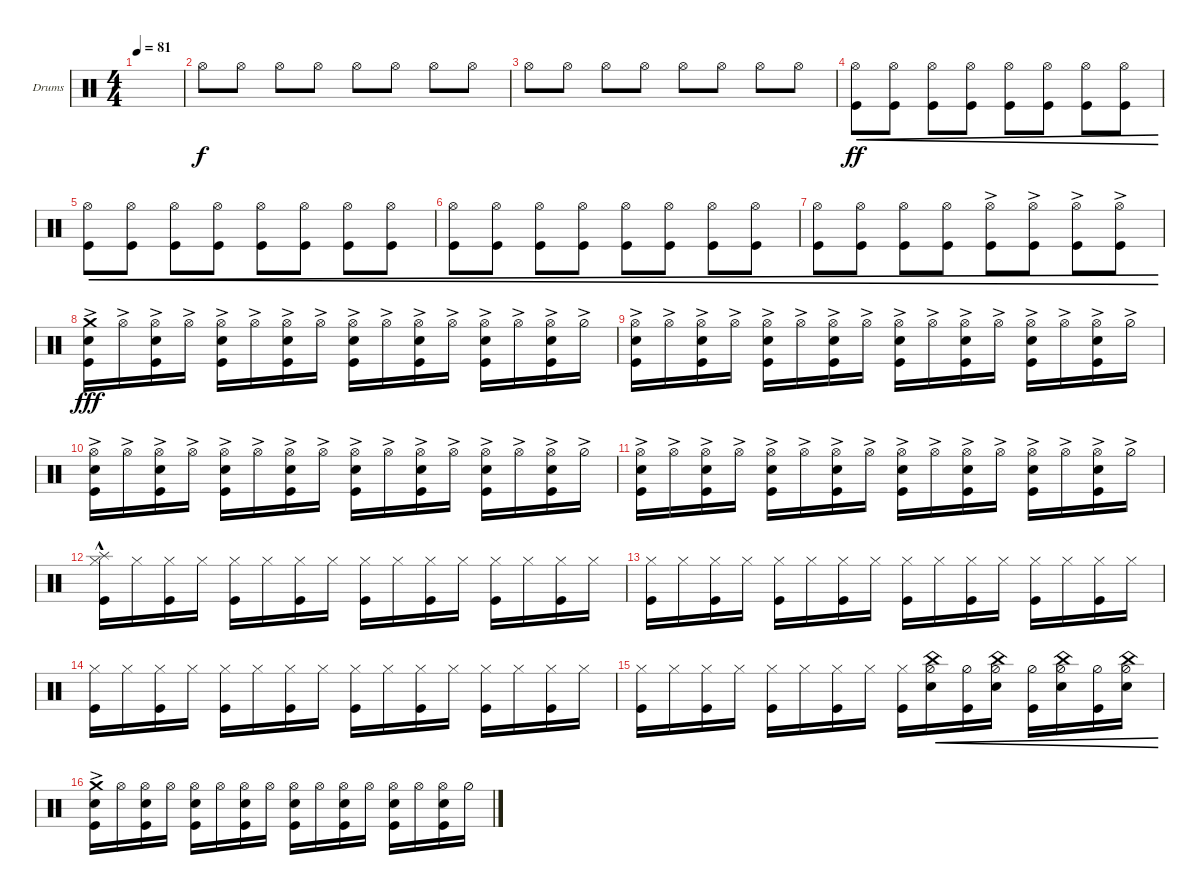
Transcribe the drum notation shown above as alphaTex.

\bracketExtendMode groupsimilarinstruments
\firstSystemTrackNameOrientation horizontal
\otherSystemsTrackNameOrientation horizontal
\track ("Drumkit" "Drums") {instrument percussion}
\staff {score}
\articulation defaults
\ts (4 4)
\tempo 81
\clef neutral
\ks c
|
"Hi-Hat (open)".8 "Hi-Hat (open)".8 "Hi-Hat (open)".8 "Hi-Hat (open)".8 "Hi-Hat (open)".8 "Hi-Hat (open)".8 "Hi-Hat (open)".8 "Hi-Hat (open)".8 |
"Hi-Hat (open)".8 "Hi-Hat (open)".8 "Hi-Hat (open)".8 "Hi-Hat (open)".8 "Hi-Hat (open)".8 "Hi-Hat (open)".8 "Hi-Hat (open)".8 "Hi-Hat (open)".8 |
("Hi-Hat (open)" "Kick (hit)").8{cre dy ff} ("Hi-Hat (open)" "Kick (hit)").8{cre} ("Hi-Hat (open)" "Kick (hit)").8{cre} ("Hi-Hat (open)" "Kick (hit)").8{cre} ("Hi-Hat (open)" "Kick (hit)").8{cre} ("Hi-Hat (open)" "Kick (hit)").8{cre} ("Hi-Hat (open)" "Kick (hit)").8{cre} ("Hi-Hat (open)" "Kick (hit)").8{cre} |
("Hi-Hat (open)" "Kick (hit)").8{cre} ("Hi-Hat (open)" "Kick (hit)").8{cre} ("Hi-Hat (open)" "Kick (hit)").8{cre} ("Hi-Hat (open)" "Kick (hit)").8{cre} ("Hi-Hat (open)" "Kick (hit)").8{cre} ("Hi-Hat (open)" "Kick (hit)").8{cre} ("Hi-Hat (open)" "Kick (hit)").8{cre} ("Hi-Hat (open)" "Kick (hit)").8{cre} |
("Hi-Hat (open)" "Kick (hit)").8{cre} ("Hi-Hat (open)" "Kick (hit)").8{cre} ("Hi-Hat (open)" "Kick (hit)").8{cre} ("Hi-Hat (open)" "Kick (hit)").8{cre} ("Hi-Hat (open)" "Kick (hit)").8{cre} ("Hi-Hat (open)" "Kick (hit)").8{cre} ("Hi-Hat (open)" "Kick (hit)").8{cre} ("Hi-Hat (open)" "Kick (hit)").8{cre} |
("Hi-Hat (open)" "Kick (hit)").8{cre} ("Hi-Hat (open)" "Kick (hit)").8{cre} ("Hi-Hat (open)" "Kick (hit)").8{cre} ("Hi-Hat (open)" "Kick (hit)").8{cre} ("Hi-Hat (open)"{ac} "Kick (hit)").8{cre} ("Hi-Hat (open)"{ac} "Kick (hit)").8{cre} ("Hi-Hat (open)"{ac} "Kick (hit)").8{cre} ("Hi-Hat (open)"{ac} "Kick (hit)").8{cre} |
("Crash medium (hit)"{ac} "Kick (hit)" "Snare (hit) 2").16{dy fff} "Hi-Hat (open)"{ac}.16 ("Hi-Hat (open)"{ac} "Kick (hit)" "Snare (hit) 2").16 "Hi-Hat (open)"{ac}.16 ("Hi-Hat (open)"{ac} "Kick (hit)" "Snare (hit) 2").16 "Hi-Hat (open)"{ac}.16 ("Hi-Hat (open)"{ac} "Kick (hit)" "Snare (hit) 2").16 "Hi-Hat (open)"{ac}.16 ("Hi-Hat (open)"{ac} "Kick (hit)" "Snare (hit) 2").16 "Hi-Hat (open)"{ac}.16 ("Hi-Hat (open)"{ac} "Kick (hit)" "Snare (hit) 2").16 "Hi-Hat (open)"{ac}.16 ("Hi-Hat (open)"{ac} "Kick (hit)" "Snare (hit) 2").16 "Hi-Hat (open)"{ac}.16 ("Hi-Hat (open)"{ac} "Kick (hit)" "Snare (hit) 2").16 "Hi-Hat (half)"{ac}.16 |
("Hi-Hat (open)"{ac} "Kick (hit)"{ac} "Snare (hit) 2"{ac}).16 "Hi-Hat (open)"{ac}.16 ("Hi-Hat (open)"{ac} "Kick (hit)"{ac} "Snare (hit) 2"{ac}).16 "Hi-Hat (open)"{ac}.16 ("Hi-Hat (open)"{ac} "Kick (hit)"{ac} "Snare (hit) 2"{ac}).16 "Hi-Hat (open)"{ac}.16 ("Hi-Hat (open)"{ac} "Kick (hit)"{ac} "Snare (hit) 2"{ac}).16 "Hi-Hat (open)"{ac}.16 ("Hi-Hat (open)"{ac} "Kick (hit)"{ac} "Snare (hit) 2"{ac}).16 "Hi-Hat (open)"{ac}.16 ("Hi-Hat (open)"{ac} "Kick (hit)"{ac} "Snare (hit) 2"{ac}).16 "Hi-Hat (open)"{ac}.16 ("Hi-Hat (open)"{ac} "Kick (hit)"{ac} "Snare (hit) 2"{ac}).16 "Hi-Hat (open)"{ac}.16 ("Hi-Hat (open)"{ac} "Kick (hit)"{ac} "Snare (hit) 2"{ac}).16 "Hi-Hat (half)"{ac}.16 |
("Hi-Hat (open)"{ac} "Kick (hit)"{ac} "Snare (hit) 2"{ac}).16 "Hi-Hat (open)"{ac}.16 ("Hi-Hat (open)"{ac} "Kick (hit)"{ac} "Snare (hit) 2"{ac}).16 "Hi-Hat (open)"{ac}.16 ("Hi-Hat (open)"{ac} "Kick (hit)"{ac} "Snare (hit) 2"{ac}).16 "Hi-Hat (open)"{ac}.16 ("Hi-Hat (open)"{ac} "Kick (hit)"{ac} "Snare (hit) 2"{ac}).16 "Hi-Hat (open)"{ac}.16 ("Hi-Hat (open)"{ac} "Kick (hit)"{ac} "Snare (hit) 2"{ac}).16 "Hi-Hat (open)"{ac}.16 ("Hi-Hat (open)"{ac} "Kick (hit)"{ac} "Snare (hit) 2"{ac}).16 "Hi-Hat (open)"{ac}.16 ("Hi-Hat (open)"{ac} "Kick (hit)"{ac} "Snare (hit) 2"{ac}).16 "Hi-Hat (open)"{ac}.16 ("Hi-Hat (open)"{ac} "Kick (hit)"{ac} "Snare (hit) 2"{ac}).16 "Hi-Hat (half)"{ac}.16 |
("Hi-Hat (open)"{ac} "Kick (hit)"{ac} "Snare (hit) 2"{ac}).16 "Hi-Hat (open)"{ac}.16 ("Hi-Hat (open)"{ac} "Kick (hit)"{ac} "Snare (hit) 2"{ac}).16 "Hi-Hat (open)"{ac}.16 ("Hi-Hat (open)"{ac} "Kick (hit)"{ac} "Snare (hit) 2"{ac}).16 "Hi-Hat (open)"{ac}.16 ("Hi-Hat (open)"{ac} "Kick (hit)"{ac} "Snare (hit) 2"{ac}).16 "Hi-Hat (open)"{ac}.16 ("Hi-Hat (open)"{ac} "Kick (hit)"{ac} "Snare (hit) 2"{ac}).16 "Hi-Hat (open)"{ac}.16 ("Hi-Hat (open)"{ac} "Kick (hit)"{ac} "Snare (hit) 2"{ac}).16 "Hi-Hat (open)"{ac}.16 ("Hi-Hat (open)"{ac} "Kick (hit)"{ac} "Snare (hit) 2"{ac}).16 "Hi-Hat (open)"{ac}.16 ("Hi-Hat (open)"{ac} "Kick (hit)"{ac} "Snare (hit) 2"{ac}).16 "Hi-Hat (half)"{ac}.16 |
("Hi-Hat (closed)" "Kick (hit)" "Splash (hit)"{hac}).16 "Hi-Hat (closed)".16 ("Hi-Hat (closed)" "Kick (hit)").16 "Hi-Hat (closed)".16 ("Hi-Hat (closed)" "Kick (hit)").16 "Hi-Hat (closed)".16 ("Hi-Hat (closed)" "Kick (hit)").16 "Hi-Hat (closed)".16 ("Hi-Hat (closed)" "Kick (hit)").16 "Hi-Hat (closed)".16 ("Hi-Hat (closed)" "Kick (hit)").16 "Hi-Hat (closed)".16 ("Hi-Hat (closed)" "Kick (hit)").16 "Hi-Hat (closed)".16 ("Hi-Hat (closed)" "Kick (hit)").16 "Hi-Hat (closed)".16 |
("Hi-Hat (closed)" "Kick (hit)").16 "Hi-Hat (closed)".16 ("Hi-Hat (closed)" "Kick (hit)").16 "Hi-Hat (closed)".16 ("Hi-Hat (closed)" "Kick (hit)").16 "Hi-Hat (closed)".16 ("Hi-Hat (closed)" "Kick (hit)").16 "Hi-Hat (closed)".16 ("Hi-Hat (closed)" "Kick (hit)").16 "Hi-Hat (closed)".16 ("Hi-Hat (closed)" "Kick (hit)").16 "Hi-Hat (closed)".16 ("Hi-Hat (closed)" "Kick (hit)").16 "Hi-Hat (closed)".16 ("Hi-Hat (closed)" "Kick (hit)").16 "Hi-Hat (closed)".16 |
("Hi-Hat (closed)" "Kick (hit)").16 "Hi-Hat (closed)".16 ("Hi-Hat (closed)" "Kick (hit)").16 "Hi-Hat (closed)".16 ("Hi-Hat (closed)" "Kick (hit)").16 "Hi-Hat (closed)".16 ("Hi-Hat (closed)" "Kick (hit)").16 "Hi-Hat (closed)".16 ("Hi-Hat (closed)" "Kick (hit)").16 "Hi-Hat (closed)".16 ("Hi-Hat (closed)" "Kick (hit)").16 "Hi-Hat (closed)".16 ("Hi-Hat (closed)" "Kick (hit)").16 "Hi-Hat (closed)".16 ("Hi-Hat (closed)" "Kick (hit)").16 "Hi-Hat (closed)".16 |
("Hi-Hat (closed)" "Kick (hit)").16 "Hi-Hat (closed)".16 ("Hi-Hat (closed)" "Kick (hit)").16 "Hi-Hat (closed)".16 ("Hi-Hat (closed)" "Kick (hit)").16 "Hi-Hat (closed)".16 ("Hi-Hat (closed)" "Kick (hit)").16 "Hi-Hat (closed)".16 ("Hi-Hat (closed)" "Kick (hit)").16 ("Hi-Hat (half)" "Snare (hit) 2" "China (hit)").16{cre} ("Hi-Hat (half)" "Kick (hit)").16{cre} ("Hi-Hat (half)" "Snare (hit) 2" "China (hit)").16{cre} ("Hi-Hat (half)" "Kick (hit)").16{cre} ("Hi-Hat (half)" "Snare (hit) 2" "China (hit)").16{cre} ("Hi-Hat (half)" "Kick (hit)").16{cre} ("Hi-Hat (half)" "Snare (hit) 2" "China (hit)").16{cre} |
("Crash medium (hit)"{ac} "Kick (hit)" "Snare (hit) 2").16 "Hi-Hat (open)".16 ("Hi-Hat (open)" "Kick (hit)" "Snare (hit) 2").16 "Hi-Hat (open)".16 ("Hi-Hat (open)" "Kick (hit)" "Snare (hit) 2").16 "Hi-Hat (open)".16 ("Hi-Hat (open)" "Kick (hit)" "Snare (hit) 2").16 "Hi-Hat (open)".16 ("Hi-Hat (open)" "Kick (hit)" "Snare (hit) 2").16 "Hi-Hat (open)".16 ("Hi-Hat (open)" "Kick (hit)" "Snare (hit) 2").16 "Hi-Hat (open)".16 ("Hi-Hat (open)" "Kick (hit)" "Snare (hit) 2").16 "Hi-Hat (open)".16 ("Hi-Hat (open)" "Kick (hit)" "Snare (hit) 2").16 "Hi-Hat (half)".16
